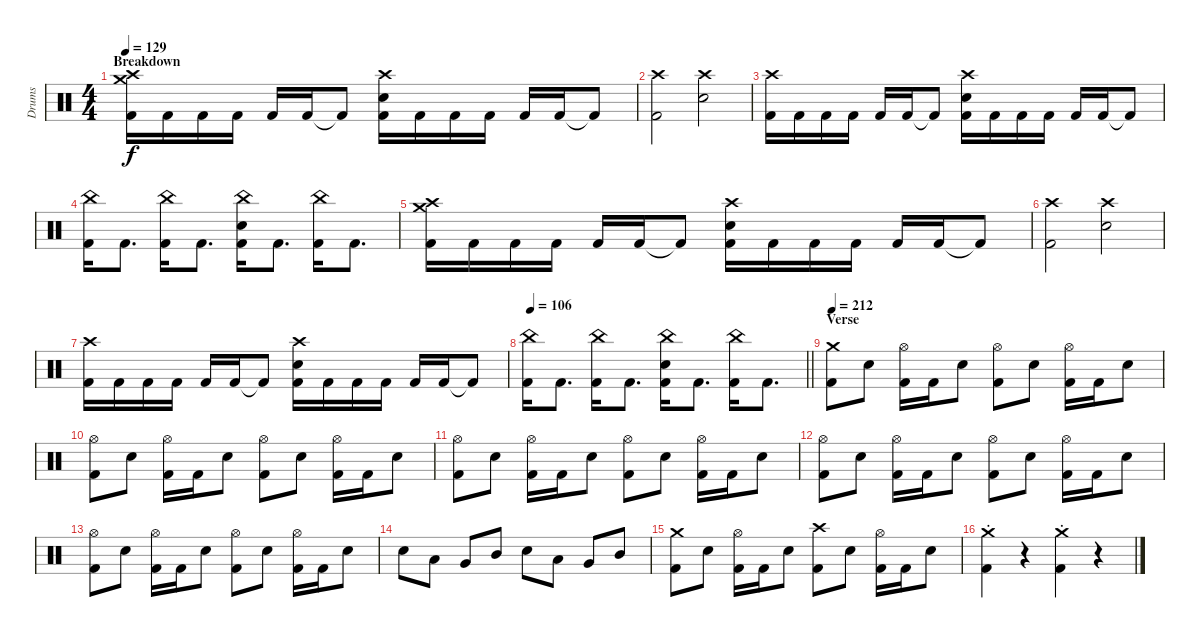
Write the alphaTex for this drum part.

\track ("Drums" "Drums") {instrument percussion}
\staff {score}
\articulation defaults
\ts (4 4)
\section ("" "Breakdown")
\tempo 129
\clef neutral
\ks c
("Crash medium (hit)" "Crash high (hit)" "Kick (hit) 2").16{dy f} "Kick (hit) 2".16 "Kick (hit) 2".16 "Kick (hit) 2".16 "Kick (hit) 2".16 "Kick (hit) 2".16 "Kick (hit) 2"{t}.8 ("Crash high (hit)" "Electric Snare (hit)" "Kick (hit) 2").16 "Kick (hit) 2".16 "Kick (hit) 2".16 "Kick (hit) 2".16 "Kick (hit) 2".16 "Kick (hit) 2".16 "Kick (hit) 2"{t}.8 |
("Crash high (hit)" "Kick (hit) 2").2 ("Crash high (hit)" "Electric Snare (hit)").2 |
("Crash high (hit)" "Kick (hit) 2").16 "Kick (hit) 2".16 "Kick (hit) 2".16 "Kick (hit) 2".16 "Kick (hit) 2".16 "Kick (hit) 2".16 "Kick (hit) 2"{t}.8 ("Crash high (hit)" "Electric Snare (hit)" "Kick (hit) 2").16 "Kick (hit) 2".16 "Kick (hit) 2".16 "Kick (hit) 2".16 "Kick (hit) 2".16 "Kick (hit) 2".16 "Kick (hit) 2"{t}.8 |
("China (hit)" "Kick (hit) 2").16 "Kick (hit) 2".8{d} ("China (hit)" "Kick (hit) 2").16 "Kick (hit) 2".8{d} ("China (hit)" "Electric Snare (hit)" "Kick (hit) 2").16 "Kick (hit) 2".8{d} ("China (hit)" "Kick (hit) 2").16 "Kick (hit) 2".8{d} |
("Crash medium (hit)" "Crash high (hit)" "Kick (hit) 2").16 "Kick (hit) 2".16 "Kick (hit) 2".16 "Kick (hit) 2".16 "Kick (hit) 2".16 "Kick (hit) 2".16 "Kick (hit) 2"{t}.8 ("Crash high (hit)" "Electric Snare (hit)" "Kick (hit) 2").16 "Kick (hit) 2".16 "Kick (hit) 2".16 "Kick (hit) 2".16 "Kick (hit) 2".16 "Kick (hit) 2".16 "Kick (hit) 2"{t}.8 |
("Crash high (hit)" "Kick (hit) 2").2 ("Crash high (hit)" "Electric Snare (hit)").2 |
("Crash high (hit)" "Kick (hit) 2").16 "Kick (hit) 2".16 "Kick (hit) 2".16 "Kick (hit) 2".16 "Kick (hit) 2".16 "Kick (hit) 2".16 "Kick (hit) 2"{t}.8 ("Crash high (hit)" "Electric Snare (hit)" "Kick (hit) 2").16 "Kick (hit) 2".16 "Kick (hit) 2".16 "Kick (hit) 2".16 "Kick (hit) 2".16 "Kick (hit) 2".16 "Kick (hit) 2"{t}.8 |
\tempo 106
\barLineRight lightlight
("China (hit)" "Kick (hit) 2").16 "Kick (hit) 2".8{d} ("China (hit)" "Kick (hit) 2").16 "Kick (hit) 2".8{d} ("China (hit)" "Electric Snare (hit)" "Kick (hit) 2").16 "Kick (hit) 2".8{d} ("China (hit)" "Kick (hit) 2").16 "Kick (hit) 2".8{d} |
\section ("" "Verse")
\tempo 212
("Crash medium (hit)" "Kick (hit) 2").8 "Electric Snare (hit)".8 ("Hi-Hat (open)" "Kick (hit) 2").16 "Kick (hit) 2".16 "Electric Snare (hit)".8 ("Hi-Hat (open)" "Kick (hit) 2").8 "Electric Snare (hit)".8 ("Hi-Hat (open)" "Kick (hit) 2").16 "Kick (hit) 2".16 "Electric Snare (hit)".8 |
("Hi-Hat (open)" "Kick (hit) 2").8 "Electric Snare (hit)".8 ("Hi-Hat (open)" "Kick (hit) 2").16 "Kick (hit) 2".16 "Electric Snare (hit)".8 ("Hi-Hat (open)" "Kick (hit) 2").8 "Electric Snare (hit)".8 ("Hi-Hat (open)" "Kick (hit) 2").16 "Kick (hit) 2".16 "Electric Snare (hit)".8 |
("Hi-Hat (open)" "Kick (hit) 2").8 "Electric Snare (hit)".8 ("Hi-Hat (open)" "Kick (hit) 2").16 "Kick (hit) 2".16 "Electric Snare (hit)".8 ("Hi-Hat (open)" "Kick (hit) 2").8 "Electric Snare (hit)".8 ("Hi-Hat (open)" "Kick (hit) 2").16 "Kick (hit) 2".16 "Electric Snare (hit)".8 |
("Hi-Hat (open)" "Kick (hit) 2").8 "Electric Snare (hit)".8 ("Hi-Hat (open)" "Kick (hit) 2").16 "Kick (hit) 2".16 "Electric Snare (hit)".8 ("Hi-Hat (open)" "Kick (hit) 2").8 "Electric Snare (hit)".8 ("Hi-Hat (open)" "Kick (hit) 2").16 "Kick (hit) 2".16 "Electric Snare (hit)".8 |
("Hi-Hat (open)" "Kick (hit) 2").8 "Electric Snare (hit)".8 ("Hi-Hat (open)" "Kick (hit) 2").16 "Kick (hit) 2".16 "Electric Snare (hit)".8 ("Hi-Hat (open)" "Kick (hit) 2").8 "Electric Snare (hit)".8 ("Hi-Hat (open)" "Kick (hit) 2").16 "Kick (hit) 2".16 "Electric Snare (hit)".8 |
"Electric Snare (hit)".8 "Low Tom (hit)".8 "Very Low Tom (hit)".8 "Mid Tom (hit)".8 "Electric Snare (hit)".8 "Low Tom (hit)".8 "Very Low Tom (hit)".8 "Mid Tom (hit)".8 |
("Crash medium (hit)" "Kick (hit) 2").8 "Electric Snare (hit)".8 ("Hi-Hat (open)" "Kick (hit) 2").16 "Kick (hit) 2".16 "Electric Snare (hit)".8 ("Crash high (hit)" "Kick (hit) 2").8 "Electric Snare (hit)".8 ("Hi-Hat (open)" "Kick (hit) 2").16 "Kick (hit) 2".16 "Electric Snare (hit)".8 |
("Crash medium (hit)"{st} "Kick (hit) 2").4 r.4{volume 0} ("Crash medium (hit)"{st} "Kick (hit) 2").4{volume 14} r.4{volume 0}
